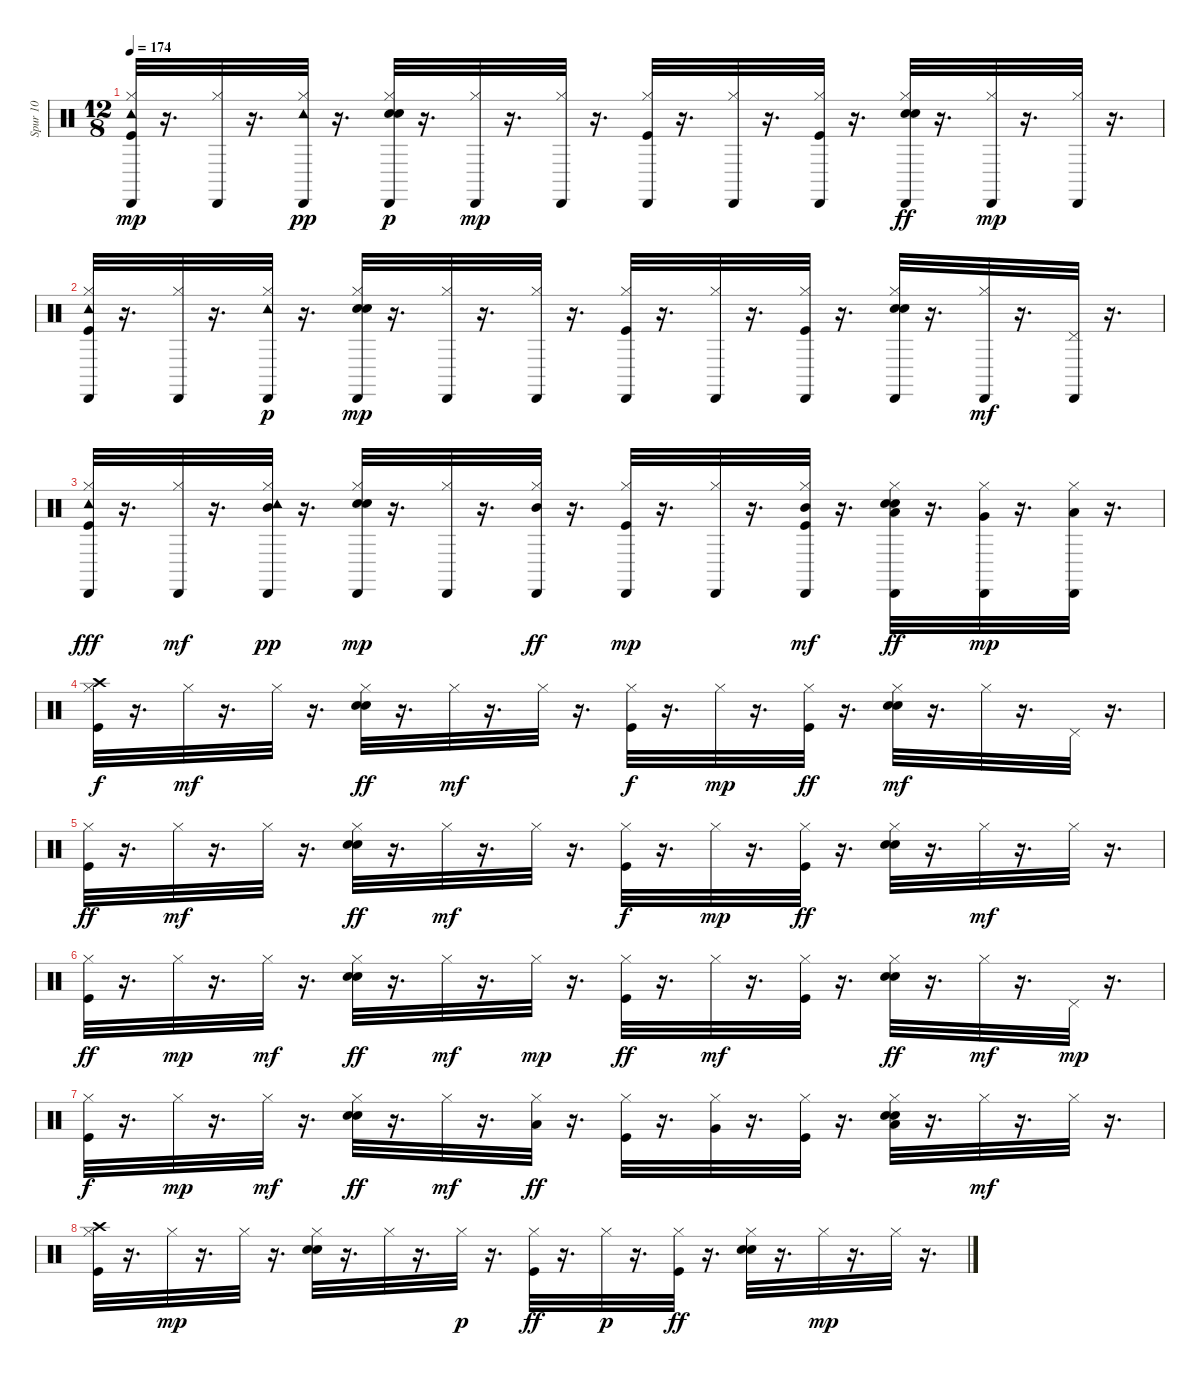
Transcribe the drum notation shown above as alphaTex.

\track ("Spur 10" "Spur 10") {instrument percussion}
\staff {score}
\articulation defaults
\ts (12 8)
\tempo 174
\clef neutral
\ks c
("Tambourine (hit)" "Hi-Hat (closed)" "Cabasa (hit)" "Kick (hit)").32{dy mp} r.16{d} ("Hi-Hat (closed)" "Cabasa (hit)").32 r.16{d} ("Hi-Hat (closed)" "Cabasa (hit)" "Tambourine (hit)").32{dy pp} r.16{d} ("Hi-Hat (closed)" "Electric Snare (hit)" "Hand Clap (hit)" "Cabasa (hit)").32{dy p} r.16{d} ("Hi-Hat (closed)" "Cabasa (hit)").32{dy mp} r.16{d} ("Hi-Hat (closed)" "Cabasa (hit)").32 r.16{d} ("Kick (hit)" "Cabasa (hit)" "Hi-Hat (closed)").32 r.16{d} ("Cabasa (hit)" "Hi-Hat (closed)").32 r.16{d} ("Hi-Hat (closed)" "Kick (hit)" "Cabasa (hit)").32 r.16{d} ("Hi-Hat (closed)" "Cabasa (hit)" "Hand Clap (hit)" "Electric Snare (hit)").32{dy ff} r.16{d} ("Hi-Hat (closed)" "Cabasa (hit)").32{dy mp} r.16{d} ("Hi-Hat (closed)" "Cabasa (hit)").32 r.16{d} |
("Tambourine (hit)" "Kick (hit)" "Cabasa (hit)" "Hi-Hat (closed)").32 r.16{d} ("Cabasa (hit)" "Hi-Hat (closed)").32 r.16{d} ("Hi-Hat (closed)" "Tambourine (hit)" "Cabasa (hit)").32{dy p} r.16{d} ("Hi-Hat (closed)" "Electric Snare (hit)" "Hand Clap (hit)" "Cabasa (hit)").32{dy mp} r.16{d} ("Hi-Hat (closed)" "Cabasa (hit)").32 r.16{d} ("Hi-Hat (closed)" "Cabasa (hit)").32 r.16{d} ("Kick (hit)" "Hi-Hat (closed)" "Cabasa (hit)").32 r.16{d} ("Cabasa (hit)" "Hi-Hat (closed)").32 r.16{d} ("Hi-Hat (closed)" "Kick (hit)" "Cabasa (hit)").32 r.16{d} ("Hi-Hat (closed)" "Hand Clap (hit)" "Electric Snare (hit)" "Cabasa (hit)").32 r.16{d} ("Cabasa (hit)" "Hi-Hat (closed)").32{dy mf} r.16{d} ("Cabasa (hit)" "Pedal Hi-Hat (hit)").32 r.16{d} |
("Tambourine (hit)" "Cabasa (hit)" "Hi-Hat (closed)" "Kick (hit)").32{dy fff} r.16{d} ("Cabasa (hit)" "Hi-Hat (closed)").32{dy mf} r.16{d} ("Hi-Hat (closed)" "Cabasa (hit)" "Mid Tom (hit)" "Tambourine (hit)").32{dy pp} r.16{d} ("Hi-Hat (closed)" "Electric Snare (hit)" "Hand Clap (hit)" "Cabasa (hit)").32{dy mp} r.16{d} ("Hi-Hat (closed)" "Cabasa (hit)").32 r.16{d} ("Hi-Hat (closed)" "Cabasa (hit)" "Mid Tom (hit)").32{dy ff} r.16{d} ("Kick (hit)" "Cabasa (hit)" "Hi-Hat (closed)").32{dy mp} r.16{d} ("Hi-Hat (closed)" "Cabasa (hit)").32 r.16{d} ("Mid Tom (hit)" "Cabasa (hit)" "Hi-Hat (closed)" "Kick (hit)").32{dy mf} r.16{d} ("Hand Clap (hit)" "Low Tom (hit)" "Cabasa (hit)" "Hi-Hat (closed)" "Electric Snare (hit)").32{dy ff} r.16{d} ("Hi-Hat (closed)" "Cabasa (hit)" "Very Low Tom (hit)").32{dy mp} r.16{d} ("Hi-Hat (closed)" "Low Floor Tom (hit)" "Cabasa (hit)").32 r.16{d} |
("Hi-Hat (closed)" "Crash high (hit)" "Kick (hit)").32{dy f} r.16{d} "Hi-Hat (closed)".32{dy mf} r.16{d} "Hi-Hat (closed)".32 r.16{d} ("Hi-Hat (closed)" "Hand Clap (hit)" "Electric Snare (hit)").32{dy ff} r.16{d} "Hi-Hat (closed)".32{dy mf} r.16{d} "Hi-Hat (closed)".32 r.16{d} ("Kick (hit)" "Hi-Hat (closed)").32{dy f} r.16{d} "Hi-Hat (closed)".32{dy mp} r.16{d} ("Hi-Hat (closed)" "Kick (hit)").32{dy ff} r.16{d} ("Hand Clap (hit)" "Electric Snare (hit)" "Hi-Hat (closed)").32{dy mf} r.16{d} "Hi-Hat (closed)".32 r.16{d} "Pedal Hi-Hat (hit)".32 r.16{d} |
("Kick (hit)" "Hi-Hat (closed)").32{dy ff} r.16{d} "Hi-Hat (closed)".32{dy mf} r.16{d} "Hi-Hat (closed)".32 r.16{d} ("Hi-Hat (closed)" "Hand Clap (hit)" "Electric Snare (hit)").32{dy ff} r.16{d} "Hi-Hat (closed)".32{dy mf} r.16{d} "Hi-Hat (closed)".32 r.16{d} ("Hi-Hat (closed)" "Kick (hit)").32{dy f} r.16{d} "Hi-Hat (closed)".32{dy mp} r.16{d} ("Hi-Hat (closed)" "Kick (hit)").32{dy ff} r.16{d} ("Hi-Hat (closed)" "Electric Snare (hit)" "Hand Clap (hit)").32 r.16{d} "Hi-Hat (closed)".32{dy mf} r.16{d} "Hi-Hat (closed)".32 r.16{d} |
("Hi-Hat (closed)" "Kick (hit)").32{dy ff} r.16{d} "Hi-Hat (closed)".32{dy mp} r.16{d} "Hi-Hat (closed)".32{dy mf} r.16{d} ("Hi-Hat (closed)" "Hand Clap (hit)" "Electric Snare (hit)").32{dy ff} r.16{d} "Hi-Hat (closed)".32{dy mf} r.16{d} "Hi-Hat (closed)".32{dy mp} r.16{d} ("Hi-Hat (closed)" "Kick (hit)").32{dy ff} r.16{d} "Hi-Hat (closed)".32{dy mf} r.16{d} ("Hi-Hat (closed)" "Kick (hit)").32 r.16{d} ("Hi-Hat (closed)" "Hand Clap (hit)" "Electric Snare (hit)").32{dy ff} r.16{d} "Hi-Hat (closed)".32{dy mf} r.16{d} "Pedal Hi-Hat (hit)".32{dy mp} r.16{d} |
("Hi-Hat (closed)" "Kick (hit)").32{dy f} r.16{d} "Hi-Hat (closed)".32{dy mp} r.16{d} "Hi-Hat (closed)".32{dy mf} r.16{d} ("Electric Snare (hit)" "Hi-Hat (closed)" "Hand Clap (hit)").32{dy ff} r.16{d} "Hi-Hat (closed)".32{dy mf} r.16{d} ("Hi-Hat (closed)" "Low Tom (hit)").32{dy ff} r.16{d} ("Kick (hit)" "Hi-Hat (closed)").32 r.16{d} ("Hi-Hat (closed)" "Very Low Tom (hit)").32 r.16{d} ("Hi-Hat (closed)" "Kick (hit)").32 r.16{d} ("Hi-Hat (closed)" "Hand Clap (hit)" "Electric Snare (hit)" "Low Floor Tom (hit)").32 r.16{d} "Hi-Hat (closed)".32{dy mf} r.16{d} "Hi-Hat (closed)".32 r.16{d} |
("Kick (hit)" "Crash high (hit)" "Hi-Hat (closed)").32 r.16{d} "Hi-Hat (closed)".32{dy mp} r.16{d} "Hi-Hat (closed)".32 r.16{d} ("Hand Clap (hit)" "Electric Snare (hit)" "Hi-Hat (closed)").32 r.16{d} "Hi-Hat (closed)".32 r.16{d} "Hi-Hat (closed)".32{dy p} r.16{d} ("Hi-Hat (closed)" "Kick (hit)").32{dy ff} r.16{d} "Hi-Hat (closed)".32{dy p} r.16{d} ("Hi-Hat (closed)" "Kick (hit)").32{dy ff} r.16{d} ("Hand Clap (hit)" "Hi-Hat (closed)" "Electric Snare (hit)").32 r.16{d} "Hi-Hat (closed)".32{dy mp} r.16{d} "Hi-Hat (closed)".32 r.16{d}
